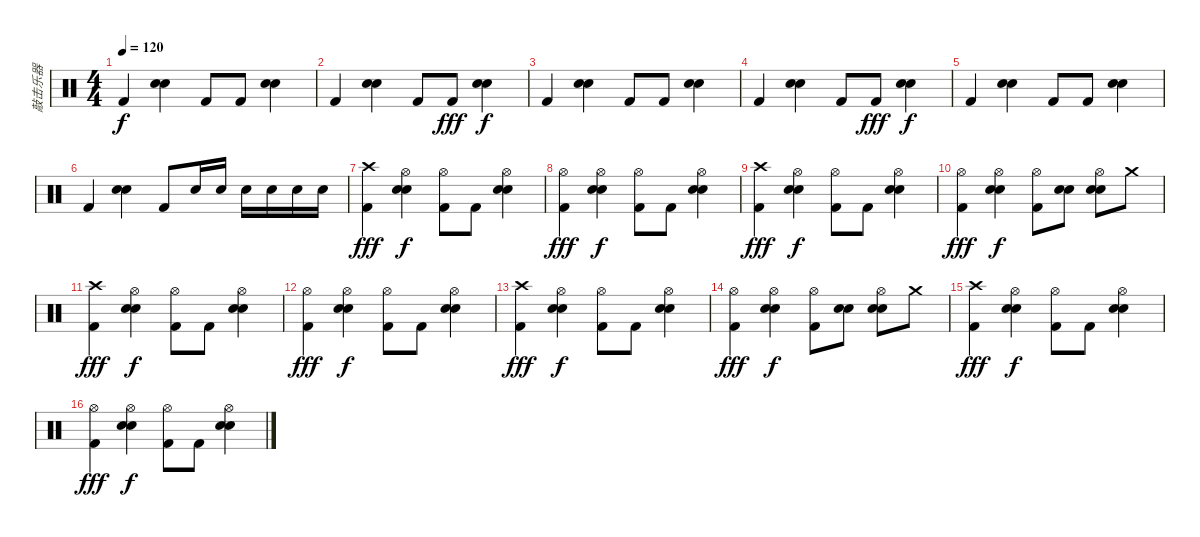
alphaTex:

\track ("敲击乐器" "敲击乐器") {instrument percussion}
\staff {score}
\articulation defaults
\ts (4 4)
\tempo 120
\clef neutral
\ks c "Kick (hit) 2".4{dy f}
("Electric Snare (hit)" "Metronome (bell)").4 "Kick (hit) 2".8 "Kick (hit) 2".8 ("Electric Snare (hit)" "Metronome (bell)").4 |
"Kick (hit) 2".4 ("Electric Snare (hit)" "Metronome (bell)").4 "Kick (hit) 2".8 "Kick (hit) 2".8{dy fff} ("Electric Snare (hit)" "Metronome (bell)").4{dy f} |
"Kick (hit) 2".4 ("Electric Snare (hit)" "Metronome (bell)").4 "Kick (hit) 2".8 "Kick (hit) 2".8 ("Electric Snare (hit)" "Metronome (bell)").4 |
"Kick (hit) 2".4 ("Electric Snare (hit)" "Metronome (bell)").4 "Kick (hit) 2".8 "Kick (hit) 2".8{dy fff} ("Electric Snare (hit)" "Metronome (bell)").4{dy f} |
"Kick (hit) 2".4 ("Electric Snare (hit)" "Metronome (bell)").4 "Kick (hit) 2".8 "Kick (hit) 2".8 ("Electric Snare (hit)" "Metronome (bell)").4 |
"Kick (hit) 2".4 ("Electric Snare (hit)" "Metronome (bell)").4 "Kick (hit) 2".8 "Electric Snare (hit)".16 "Electric Snare (hit)".16 "Electric Snare (hit)".16 "Electric Snare (hit)".16 "Electric Snare (hit)".16 "Electric Snare (hit)".16 |
("Crash high (hit)" "Kick (hit) 2").4{dy fff} ("Hi-Hat (open)" "Electric Snare (hit)" "Metronome (bell)").4{dy f} ("Hi-Hat (open)" "Kick (hit) 2").8 "Kick (hit) 2".8 ("Hi-Hat (open)" "Electric Snare (hit)" "Metronome (bell)").4 |
("Hi-Hat (open)" "Kick (hit) 2").4{dy fff} ("Hi-Hat (open)" "Electric Snare (hit)" "Metronome (bell)").4{dy f} ("Hi-Hat (open)" "Kick (hit) 2").8 "Kick (hit) 2".8 ("Hi-Hat (open)" "Electric Snare (hit)" "Metronome (bell)").4 |
("Crash high (hit)" "Kick (hit) 2").4{dy fff} ("Hi-Hat (open)" "Electric Snare (hit)" "Metronome (bell)").4{dy f} ("Hi-Hat (open)" "Kick (hit) 2").8 "Kick (hit) 2".8 ("Hi-Hat (open)" "Electric Snare (hit)" "Metronome (bell)").4 |
("Hi-Hat (open)" "Kick (hit) 2").4{dy fff} ("Hi-Hat (open)" "Electric Snare (hit)" "Metronome (bell)").4{dy f} ("Hi-Hat (open)" "Kick (hit) 2").8 ("Electric Snare (hit)" "Metronome (bell)").8 ("Hi-Hat (open)" "Electric Snare (hit)" "Metronome (bell)").8 "Crash medium (hit)".8 |
("Crash high (hit)" "Kick (hit) 2").4{dy fff} ("Hi-Hat (open)" "Electric Snare (hit)" "Metronome (bell)").4{dy f} ("Hi-Hat (open)" "Kick (hit) 2").8 "Kick (hit) 2".8 ("Hi-Hat (open)" "Electric Snare (hit)" "Metronome (bell)").4 |
("Hi-Hat (open)" "Kick (hit) 2").4{dy fff} ("Hi-Hat (open)" "Electric Snare (hit)" "Metronome (bell)").4{dy f} ("Hi-Hat (open)" "Kick (hit) 2").8 "Kick (hit) 2".8 ("Hi-Hat (open)" "Electric Snare (hit)" "Metronome (bell)").4 |
("Crash high (hit)" "Kick (hit) 2").4{dy fff} ("Hi-Hat (open)" "Electric Snare (hit)" "Metronome (bell)").4{dy f} ("Hi-Hat (open)" "Kick (hit) 2").8 "Kick (hit) 2".8 ("Hi-Hat (open)" "Electric Snare (hit)" "Metronome (bell)").4 |
("Hi-Hat (open)" "Kick (hit) 2").4{dy fff} ("Hi-Hat (open)" "Electric Snare (hit)" "Metronome (bell)").4{dy f} ("Hi-Hat (open)" "Kick (hit) 2").8 ("Electric Snare (hit)" "Metronome (bell)").8 ("Hi-Hat (open)" "Electric Snare (hit)" "Metronome (bell)").8 "Crash medium (hit)".8 |
("Crash high (hit)" "Kick (hit) 2").4{dy fff} ("Hi-Hat (open)" "Electric Snare (hit)" "Metronome (bell)").4{dy f} ("Hi-Hat (open)" "Kick (hit) 2").8 "Kick (hit) 2".8 ("Hi-Hat (open)" "Electric Snare (hit)" "Metronome (bell)").4 |
("Hi-Hat (open)" "Kick (hit) 2").4{dy fff} ("Hi-Hat (open)" "Electric Snare (hit)" "Metronome (bell)").4{dy f} ("Hi-Hat (open)" "Kick (hit) 2").8 "Kick (hit) 2".8 ("Hi-Hat (open)" "Electric Snare (hit)" "Metronome (bell)").4
